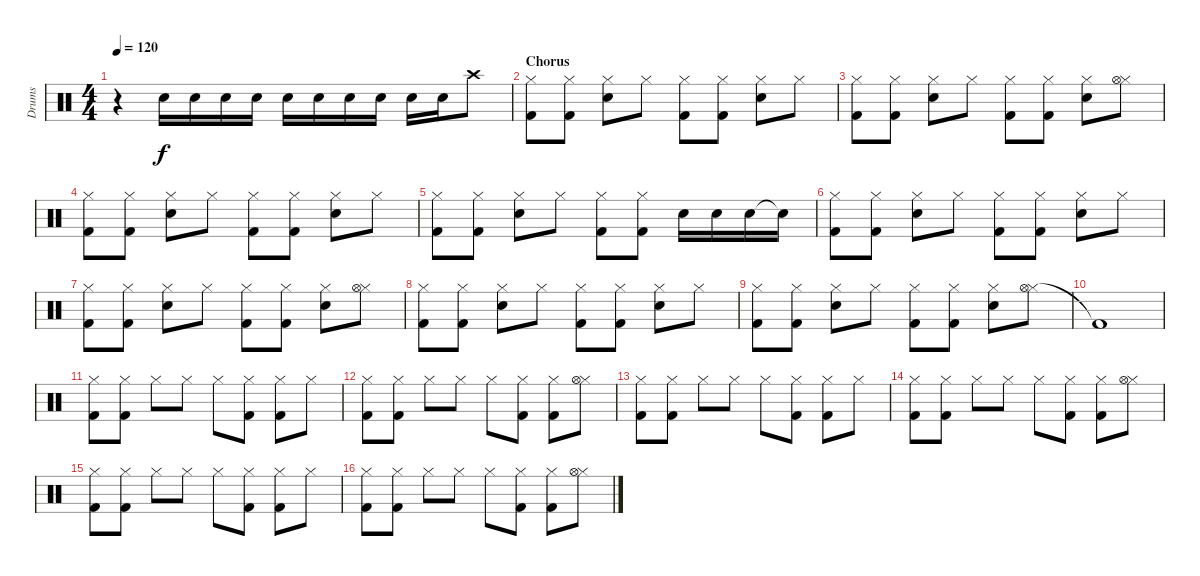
\track ("Drums" "Drums") {instrument percussion}
\staff {score}
\articulation defaults
\ts (4 4)
\tempo 120
\clef neutral
\ks c
r.4{dy f} "Snare (hit) 2".16 "Snare (hit) 2".16 "Snare (hit) 2".16 "Snare (hit) 2".16 "Snare (hit) 2".16 "Snare (hit) 2".16 "Snare (hit) 2".16 "Snare (hit) 2".16 "Snare (hit) 2".16 "Snare (hit) 2".16 "Crash high (hit)".8 |
\section ("" "Chorus")
("Hi-Hat (closed)" "Kick (hit) 2").8 ("Hi-Hat (closed)" "Kick (hit) 2").8 ("Hi-Hat (closed)" "Snare (hit) 2").8 "Hi-Hat (closed)".8 ("Hi-Hat (closed)" "Kick (hit) 2").8 ("Hi-Hat (closed)" "Kick (hit) 2").8 ("Hi-Hat (closed)" "Snare (hit) 2").8 "Hi-Hat (closed)".8 |
("Hi-Hat (closed)" "Kick (hit) 2").8 ("Hi-Hat (closed)" "Kick (hit) 2").8 ("Hi-Hat (closed)" "Snare (hit) 2").8 "Hi-Hat (closed)".8 ("Hi-Hat (closed)" "Kick (hit) 2").8 ("Hi-Hat (closed)" "Kick (hit) 2").8 ("Hi-Hat (closed)" "Snare (hit) 2").8 ("Hi-Hat (closed)" "Hi-Hat (open)").8 |
("Hi-Hat (closed)" "Kick (hit) 2").8 ("Hi-Hat (closed)" "Kick (hit) 2").8 ("Hi-Hat (closed)" "Snare (hit) 2").8 "Hi-Hat (closed)".8 ("Hi-Hat (closed)" "Kick (hit) 2").8 ("Hi-Hat (closed)" "Kick (hit) 2").8 ("Hi-Hat (closed)" "Snare (hit) 2").8 "Hi-Hat (closed)".8 |
("Hi-Hat (closed)" "Kick (hit) 2").8 ("Hi-Hat (closed)" "Kick (hit) 2").8 ("Hi-Hat (closed)" "Snare (hit) 2").8 "Hi-Hat (closed)".8 ("Hi-Hat (closed)" "Kick (hit) 2").8 ("Hi-Hat (closed)" "Kick (hit) 2").8 "Snare (hit) 2".16 "Snare (hit) 2".16 "Snare (hit) 2".16 "Snare (hit)"{t}.16 |
("Hi-Hat (closed)" "Kick (hit) 2").8 ("Hi-Hat (closed)" "Kick (hit) 2").8 ("Hi-Hat (closed)" "Snare (hit) 2").8 "Hi-Hat (closed)".8 ("Hi-Hat (closed)" "Kick (hit) 2").8 ("Hi-Hat (closed)" "Kick (hit) 2").8 ("Hi-Hat (closed)" "Snare (hit) 2").8 "Hi-Hat (closed)".8 |
("Hi-Hat (closed)" "Kick (hit) 2").8 ("Hi-Hat (closed)" "Kick (hit) 2").8 ("Hi-Hat (closed)" "Snare (hit) 2").8 "Hi-Hat (closed)".8 ("Hi-Hat (closed)" "Kick (hit) 2").8 ("Hi-Hat (closed)" "Kick (hit) 2").8 ("Hi-Hat (closed)" "Snare (hit) 2").8 ("Hi-Hat (closed)" "Hi-Hat (open)").8 |
("Hi-Hat (closed)" "Kick (hit) 2").8 ("Hi-Hat (closed)" "Kick (hit) 2").8 ("Hi-Hat (closed)" "Snare (hit) 2").8 "Hi-Hat (closed)".8 ("Hi-Hat (closed)" "Kick (hit) 2").8 ("Hi-Hat (closed)" "Kick (hit) 2").8 ("Hi-Hat (closed)" "Snare (hit) 2").8 "Hi-Hat (closed)".8 |
("Hi-Hat (closed)" "Kick (hit) 2").8 ("Hi-Hat (closed)" "Kick (hit) 2").8 ("Hi-Hat (closed)" "Snare (hit) 2").8 "Hi-Hat (closed)".8 ("Hi-Hat (closed)" "Kick (hit) 2").8 ("Hi-Hat (closed)" "Kick (hit) 2").8 ("Hi-Hat (closed)" "Snare (hit) 2").8 ("Hi-Hat (closed)" "Hi-Hat (open)").8 |
"Kick (hit) 2"{t}.1 |
("Hi-Hat (closed)" "Kick (hit) 2").8 ("Hi-Hat (closed)" "Kick (hit) 2").8 "Hi-Hat (closed)".8 "Hi-Hat (closed)".8 "Hi-Hat (closed)".8 ("Hi-Hat (closed)" "Kick (hit) 2").8 ("Hi-Hat (closed)" "Kick (hit) 2").8 "Hi-Hat (closed)".8 |
("Hi-Hat (closed)" "Kick (hit) 2").8 ("Hi-Hat (closed)" "Kick (hit) 2").8 "Hi-Hat (closed)".8 "Hi-Hat (closed)".8 "Hi-Hat (closed)".8 ("Hi-Hat (closed)" "Kick (hit) 2").8 ("Hi-Hat (closed)" "Kick (hit) 2").8 ("Hi-Hat (closed)" "Hi-Hat (open)").8 |
("Hi-Hat (closed)" "Kick (hit) 2").8 ("Hi-Hat (closed)" "Kick (hit) 2").8 "Hi-Hat (closed)".8 "Hi-Hat (closed)".8 "Hi-Hat (closed)".8 ("Hi-Hat (closed)" "Kick (hit) 2").8 ("Hi-Hat (closed)" "Kick (hit) 2").8 "Hi-Hat (closed)".8 |
("Hi-Hat (closed)" "Kick (hit) 2").8 ("Hi-Hat (closed)" "Kick (hit) 2").8 "Hi-Hat (closed)".8 "Hi-Hat (closed)".8 "Hi-Hat (closed)".8 ("Hi-Hat (closed)" "Kick (hit) 2").8 ("Hi-Hat (closed)" "Kick (hit) 2").8 ("Hi-Hat (closed)" "Hi-Hat (open)").8 |
("Hi-Hat (closed)" "Kick (hit) 2").8 ("Hi-Hat (closed)" "Kick (hit) 2").8 "Hi-Hat (closed)".8 "Hi-Hat (closed)".8 "Hi-Hat (closed)".8 ("Hi-Hat (closed)" "Kick (hit) 2").8 ("Hi-Hat (closed)" "Kick (hit) 2").8 "Hi-Hat (closed)".8 |
("Hi-Hat (closed)" "Kick (hit) 2").8 ("Hi-Hat (closed)" "Kick (hit) 2").8 "Hi-Hat (closed)".8 "Hi-Hat (closed)".8 "Hi-Hat (closed)".8 ("Hi-Hat (closed)" "Kick (hit) 2").8 ("Hi-Hat (closed)" "Kick (hit) 2").8 ("Hi-Hat (closed)" "Hi-Hat (open)").8
